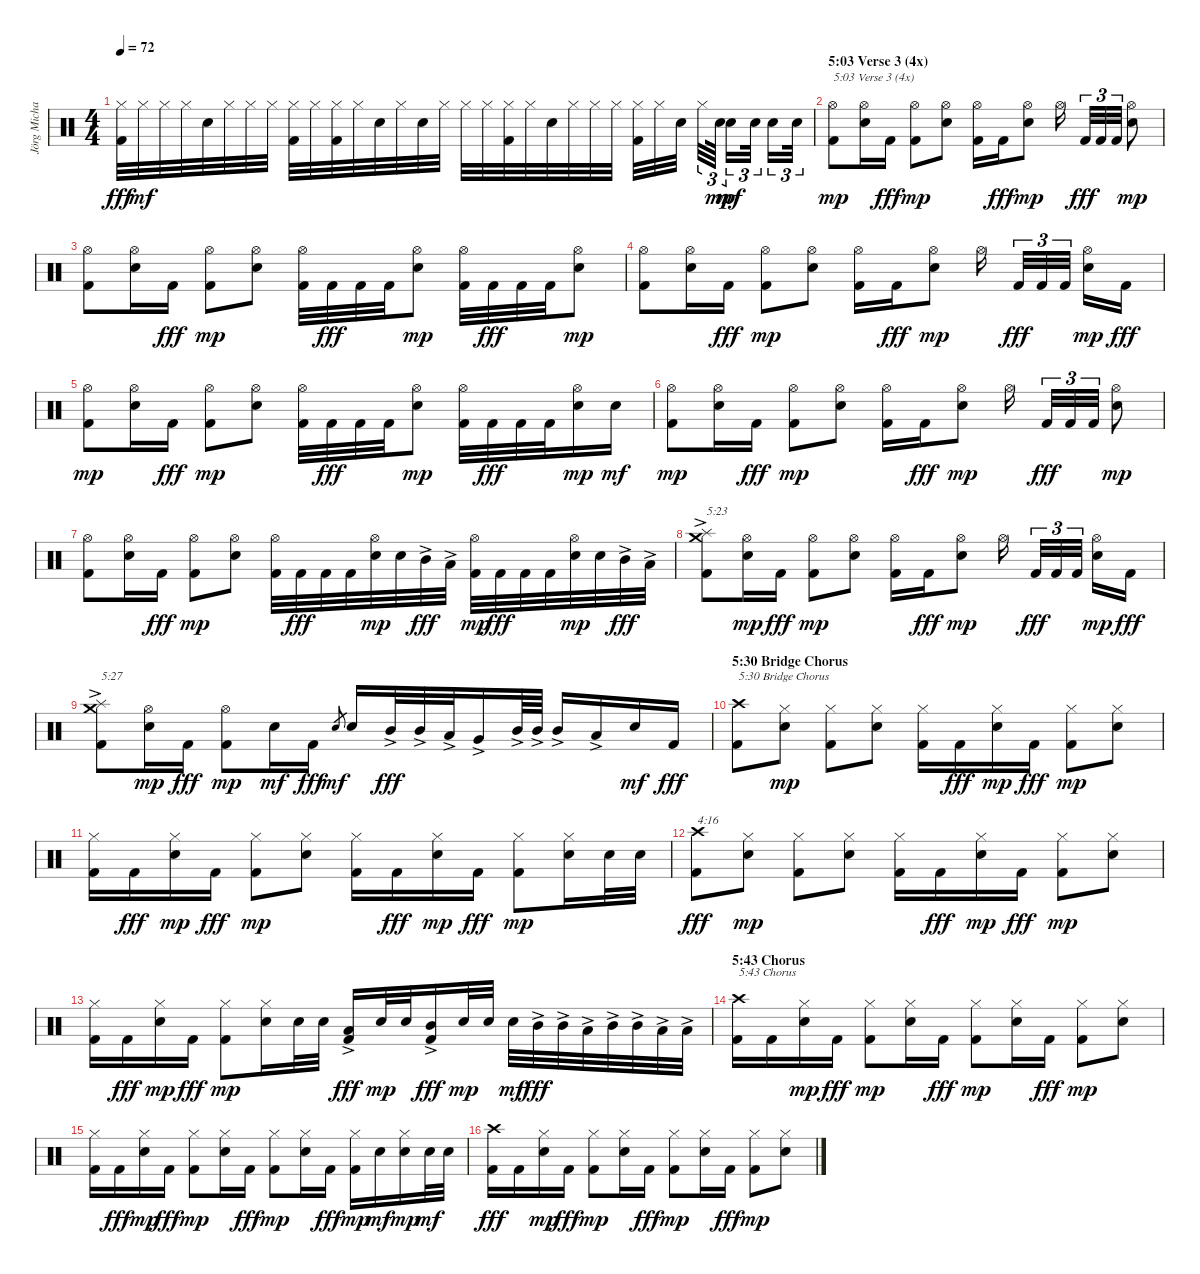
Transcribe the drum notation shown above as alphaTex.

\track ("Jörg Michael" "Jörg Micha") {instrument percussion}
\staff {score}
\articulation defaults
\ts (4 4)
\tempo 72
\clef neutral
\ks c
("Kick (hit) 2" "Hi-Hat (closed)").32{dy fff} "Hi-Hat (closed)".32{dy mf} "Hi-Hat (closed)".32 "Hi-Hat (closed)".32 "Snare (hit) 2".32 "Hi-Hat (closed)".32 "Hi-Hat (closed)".32 "Hi-Hat (closed)".32 ("Kick (hit) 2" "Hi-Hat (closed)").32 "Hi-Hat (closed)".32 ("Kick (hit) 2" "Hi-Hat (closed)").32 "Hi-Hat (closed)".32 "Snare (hit) 2".32 "Hi-Hat (closed)".32 "Snare (hit) 2".32 "Hi-Hat (closed)".32 "Hi-Hat (closed)".32 "Hi-Hat (closed)".32 ("Kick (hit) 2" "Hi-Hat (closed)").32 "Hi-Hat (closed)".32 "Snare (hit) 2".32 "Hi-Hat (closed)".32 "Hi-Hat (closed)".32 "Hi-Hat (closed)".32 ("Kick (hit) 2" "Hi-Hat (closed)").32 "Hi-Hat (closed)".32 "Snare (hit) 2".32 "Hi-Hat (closed)".32{tu (3 2)} "Snare (hit) 2".64{tu (3 2) dy mp} "Snare (hit) 2".16{tu (3 2) dy mf} "Snare (hit) 2".32{tu (3 2)} "Snare (hit) 2".16{tu (3 2)} "Snare (hit) 2".32{tu (3 2)} |
\section ("" "5:03 Verse 3 (4x)")
("Kick (hit) 2" "Hi-Hat (open)").8{txt "5:03 Verse 3 (4x)" dy mp} ("Snare (hit) 2" "Hi-Hat (open)").16 "Kick (hit) 2".16{dy fff} ("Kick (hit) 2" "Hi-Hat (open)").8{dy mp} ("Snare (hit) 2" "Hi-Hat (open)").8 ("Kick (hit) 2" "Hi-Hat (open)").16 "Kick (hit) 2".16{dy fff} ("Snare (hit) 2" "Hi-Hat (open)").8{dy mp} "Hi-Hat (open)".16 "Kick (hit) 2".32{tu (3 2) dy fff} "Kick (hit) 2".32{tu (3 2)} "Kick (hit) 2".32{tu (3 2)} ("Snare (hit) 2" "Hi-Hat (open)").8{dy mp} |
("Kick (hit) 2" "Hi-Hat (open)").8 ("Snare (hit) 2" "Hi-Hat (open)").16 "Kick (hit) 2".16{dy fff} ("Kick (hit) 2" "Hi-Hat (open)").8{dy mp} ("Snare (hit) 2" "Hi-Hat (open)").8 ("Kick (hit) 2" "Hi-Hat (open)").32 "Kick (hit) 2".32{dy fff} "Kick (hit) 2".32 "Kick (hit) 2".32 ("Snare (hit) 2" "Hi-Hat (open)").8{dy mp} ("Kick (hit) 2" "Hi-Hat (open)").32 "Kick (hit) 2".32{dy fff} "Kick (hit) 2".32 "Kick (hit) 2".32 ("Snare (hit) 2" "Hi-Hat (open)").8{dy mp} |
("Kick (hit) 2" "Hi-Hat (open)").8 ("Snare (hit) 2" "Hi-Hat (open)").16 "Kick (hit) 2".16{dy fff} ("Kick (hit) 2" "Hi-Hat (open)").8{dy mp} ("Snare (hit) 2" "Hi-Hat (open)").8 ("Kick (hit) 2" "Hi-Hat (open)").16 "Kick (hit) 2".16{dy fff} ("Snare (hit) 2" "Hi-Hat (open)").8{dy mp} "Hi-Hat (open)".16 "Kick (hit) 2".32{tu (3 2) dy fff} "Kick (hit) 2".32{tu (3 2)} "Kick (hit) 2".32{tu (3 2)} ("Snare (hit) 2" "Hi-Hat (open)").16{dy mp} "Kick (hit) 2".16{dy fff} |
("Kick (hit) 2" "Hi-Hat (open)").8{dy mp} ("Snare (hit) 2" "Hi-Hat (open)").16 "Kick (hit) 2".16{dy fff} ("Kick (hit) 2" "Hi-Hat (open)").8{dy mp} ("Snare (hit) 2" "Hi-Hat (open)").8 ("Kick (hit) 2" "Hi-Hat (open)").32 "Kick (hit) 2".32{dy fff} "Kick (hit) 2".32 "Kick (hit) 2".32 ("Snare (hit) 2" "Hi-Hat (open)").8{dy mp} ("Kick (hit) 2" "Hi-Hat (open)").32 "Kick (hit) 2".32{dy fff} "Kick (hit) 2".32 "Kick (hit) 2".32 ("Snare (hit) 2" "Hi-Hat (open)").16{dy mp} "Snare (hit) 2".16{dy mf} |
("Kick (hit) 2" "Hi-Hat (open)").8{dy mp} ("Snare (hit) 2" "Hi-Hat (open)").16 "Kick (hit) 2".16{dy fff} ("Kick (hit) 2" "Hi-Hat (open)").8{dy mp} ("Snare (hit) 2" "Hi-Hat (open)").8 ("Kick (hit) 2" "Hi-Hat (open)").16 "Kick (hit) 2".16{dy fff} ("Snare (hit) 2" "Hi-Hat (open)").8{dy mp} "Hi-Hat (open)".16 "Kick (hit) 2".32{tu (3 2) dy fff} "Kick (hit) 2".32{tu (3 2)} "Kick (hit) 2".32{tu (3 2)} ("Snare (hit) 2" "Hi-Hat (open)").8{dy mp} |
("Kick (hit) 2" "Hi-Hat (open)").8 ("Snare (hit) 2" "Hi-Hat (open)").16 "Kick (hit) 2".16{dy fff} ("Kick (hit) 2" "Hi-Hat (open)").8{dy mp} ("Snare (hit) 2" "Hi-Hat (open)").8 ("Kick (hit) 2" "Hi-Hat (open)").32 "Kick (hit) 2".32{dy fff} "Kick (hit) 2".32 "Kick (hit) 2".32 ("Snare (hit) 2" "Hi-Hat (open)").32{dy mp} "Snare (hit) 2".32 "Mid Tom (hit)"{ac}.32{dy fff} "Low Tom (hit)"{ac}.32 ("Kick (hit) 2" "Hi-Hat (open)").32{dy mp} "Kick (hit) 2".32{dy fff} "Kick (hit) 2".32 "Kick (hit) 2".32 ("Snare (hit) 2" "Hi-Hat (open)").32{dy mp} "Snare (hit) 2".32 "Mid Tom (hit)"{ac}.32{dy fff} "Low Tom (hit)"{ac}.32 |
("Kick (hit) 2" "Splash (hit)" "Crash medium (hit)"{ac}).8{txt "5:23"} ("Snare (hit) 2" "Hi-Hat (open)").16{dy mp} "Kick (hit) 2".16{dy fff} ("Kick (hit) 2" "Hi-Hat (open)").8{dy mp} ("Snare (hit) 2" "Hi-Hat (open)").8 ("Kick (hit) 2" "Hi-Hat (open)").16 "Kick (hit) 2".16{dy fff} ("Snare (hit) 2" "Hi-Hat (open)").8{dy mp} "Hi-Hat (open)".16 "Kick (hit) 2".32{tu (3 2) dy fff} "Kick (hit) 2".32{tu (3 2)} "Kick (hit) 2".32{tu (3 2)} ("Snare (hit) 2" "Hi-Hat (open)").16{dy mp} "Kick (hit) 2".16{dy fff} |
("Kick (hit) 2" "Splash (hit)" "Crash medium (hit)"{ac}).8{txt "5:27"} ("Snare (hit) 2" "Hi-Hat (open)").16{dy mp} "Kick (hit) 2".16{dy fff} ("Kick (hit) 2" "Hi-Hat (open)").8{dy mp} "Snare (hit) 2".16{dy mf} "Kick (hit) 2".16{dy fff} "Snare (hit) 2".8{gr dy mf} "Snare (hit) 2".16 "Mid Tom (hit)"{ac}.32{dy fff} "Mid Tom (hit)"{ac}.32 "Low Tom (hit)"{ac}.32 "Very Low Tom (hit)"{ac}.16 "Mid Tom (hit)"{ac}.64 "Mid Tom (hit)"{ac}.64 "Mid Tom (hit)"{ac}.16 "Low Tom (hit)"{ac}.16 "Snare (hit) 2".16{dy mf} "Kick (hit) 2".16{dy fff} |
\section ("" "5:30 Bridge Chorus")
("Kick (hit) 2" "Crash high (hit)").8{txt "5:30 Bridge Chorus"} ("Snare (hit) 2" "Hi-Hat (closed)").8{dy mp} ("Kick (hit) 2" "Hi-Hat (closed)").8 ("Snare (hit) 2" "Hi-Hat (closed)").8 ("Kick (hit) 2" "Hi-Hat (closed)").16 "Kick (hit) 2".16{dy fff} ("Snare (hit) 2" "Hi-Hat (closed)").16{dy mp} "Kick (hit) 2".16{dy fff} ("Kick (hit) 2" "Hi-Hat (closed)").8{dy mp} ("Snare (hit) 2" "Hi-Hat (closed)").8 |
("Kick (hit) 2" "Hi-Hat (closed)").16 "Kick (hit) 2".16{dy fff} ("Snare (hit) 2" "Hi-Hat (closed)").16{dy mp} "Kick (hit) 2".16{dy fff} ("Kick (hit) 2" "Hi-Hat (closed)").8{dy mp} ("Snare (hit) 2" "Hi-Hat (closed)").8 ("Kick (hit) 2" "Hi-Hat (closed)").16 "Kick (hit) 2".16{dy fff} ("Snare (hit) 2" "Hi-Hat (closed)").16{dy mp} "Kick (hit) 2".16{dy fff} ("Kick (hit) 2" "Hi-Hat (closed)").8{dy mp} ("Snare (hit) 2" "Hi-Hat (closed)").16 "Snare (hit) 2".32 "Snare (hit) 2".32 |
("Kick (hit) 2" "Crash high (hit)").8{txt "4:16" dy fff} ("Snare (hit) 2" "Hi-Hat (closed)").8{dy mp} ("Kick (hit) 2" "Hi-Hat (closed)").8 ("Snare (hit) 2" "Hi-Hat (closed)").8 ("Kick (hit) 2" "Hi-Hat (closed)").16 "Kick (hit) 2".16{dy fff} ("Snare (hit) 2" "Hi-Hat (closed)").16{dy mp} "Kick (hit) 2".16{dy fff} ("Kick (hit) 2" "Hi-Hat (closed)").8{dy mp} ("Snare (hit) 2" "Hi-Hat (closed)").8 |
("Kick (hit) 2" "Hi-Hat (closed)").16 "Kick (hit) 2".16{dy fff} ("Snare (hit) 2" "Hi-Hat (closed)").16{dy mp} "Kick (hit) 2".16{dy fff} ("Kick (hit) 2" "Hi-Hat (closed)").8{dy mp} ("Snare (hit) 2" "Hi-Hat (closed)").16 "Snare (hit) 2".32 "Snare (hit) 2".32 ("Kick (hit) 2" "Low Tom (hit)"{ac}).16{dy fff} "Snare (hit) 2".32{dy mp} "Snare (hit) 2".32 ("Kick (hit) 2" "Mid Tom (hit)"{ac}).16{dy fff} "Snare (hit) 2".32{dy mp} "Snare (hit) 2".32 "Snare (hit) 2".32{dy mf} "Mid Tom (hit)"{ac}.32{dy fff} "Mid Tom (hit)"{ac}.32 "Low Tom (hit)"{ac}.32 "Mid Tom (hit)"{ac}.32 "Mid Tom (hit)"{ac}.32 "Low Tom (hit)"{ac}.32 "Low Tom (hit)"{ac}.32 |
\section ("" "5:43 Chorus")
("Kick (hit) 2" "Crash high (hit)").16{txt "5:43 Chorus"} "Kick (hit) 2".16 ("Snare (hit) 2" "Hi-Hat (closed)").16{dy mp} "Kick (hit) 2".16{dy fff} ("Kick (hit) 2" "Hi-Hat (closed)").8{dy mp} ("Snare (hit) 2" "Hi-Hat (closed)").16 "Kick (hit) 2".16{dy fff} ("Kick (hit) 2" "Hi-Hat (closed)").8{dy mp} ("Snare (hit) 2" "Hi-Hat (closed)").16 "Kick (hit) 2".16{dy fff} ("Kick (hit) 2" "Hi-Hat (closed)").8{dy mp} ("Snare (hit) 2" "Hi-Hat (closed)").8 |
("Kick (hit) 2" "Hi-Hat (closed)").16 "Kick (hit) 2".16{dy fff} ("Snare (hit) 2" "Hi-Hat (closed)").16{dy mp} "Kick (hit) 2".16{dy fff} ("Kick (hit) 2" "Hi-Hat (closed)").8{dy mp} ("Snare (hit) 2" "Hi-Hat (closed)").16 "Kick (hit) 2".16{dy fff} ("Kick (hit) 2" "Hi-Hat (closed)").8{dy mp} ("Snare (hit) 2" "Hi-Hat (closed)").16 "Kick (hit) 2".16{dy fff} ("Kick (hit) 2" "Hi-Hat (closed)").16{dy mp} "Snare (hit) 2".16{dy mf} ("Snare (hit) 2" "Hi-Hat (closed)").16{dy mp} "Snare (hit) 2".32{dy mf} "Snare (hit) 2".32 |
("Kick (hit) 2" "Crash high (hit)").16{dy fff} "Kick (hit) 2".16 ("Snare (hit) 2" "Hi-Hat (closed)").16{dy mp} "Kick (hit) 2".16{dy fff} ("Kick (hit) 2" "Hi-Hat (closed)").8{dy mp} ("Snare (hit) 2" "Hi-Hat (closed)").16 "Kick (hit) 2".16{dy fff} ("Kick (hit) 2" "Hi-Hat (closed)").8{dy mp} ("Snare (hit) 2" "Hi-Hat (closed)").16 "Kick (hit) 2".16{dy fff} ("Kick (hit) 2" "Hi-Hat (closed)").8{dy mp} ("Snare (hit) 2" "Hi-Hat (closed)").8
